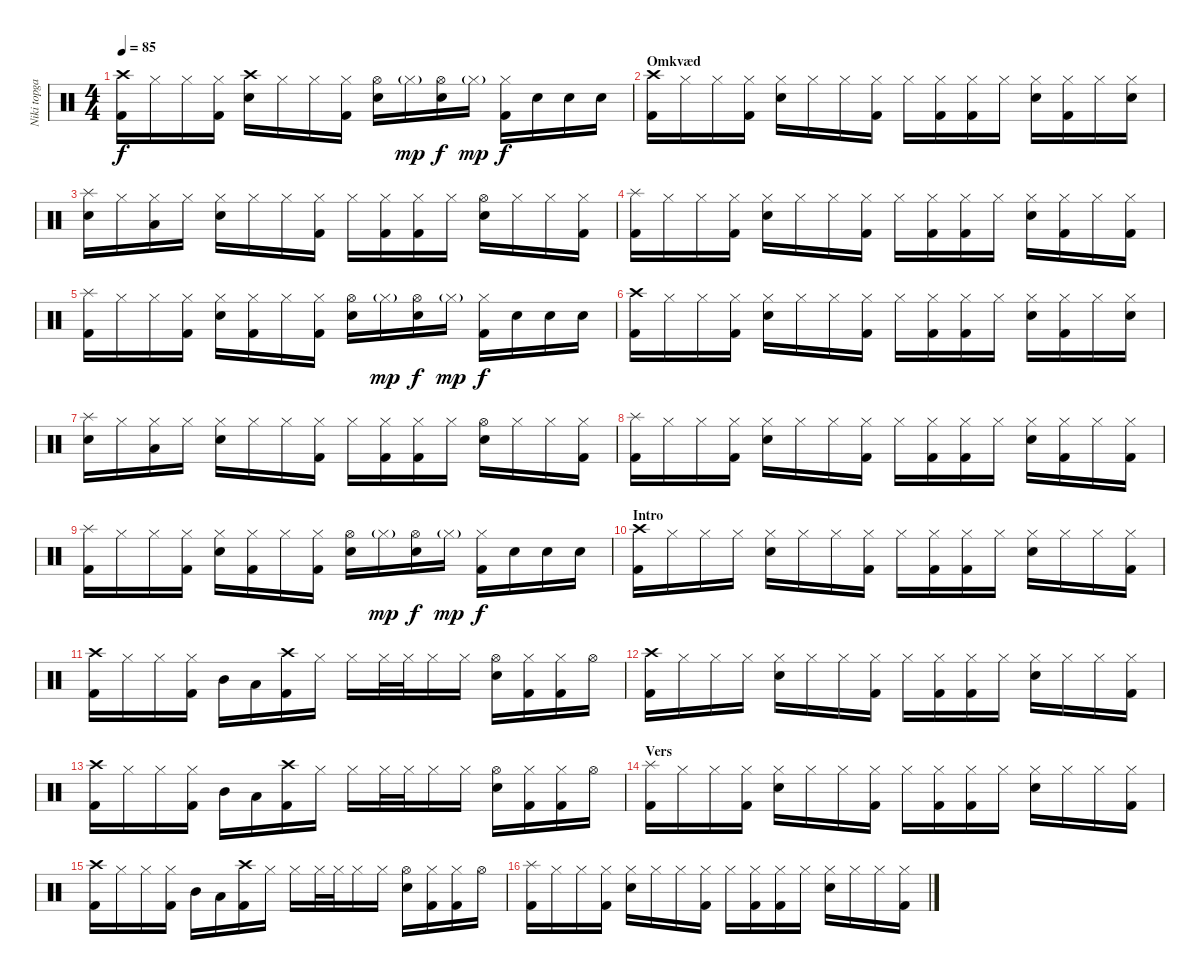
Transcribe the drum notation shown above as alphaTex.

\track ("Niki topgaard" "Niki topga") {instrument percussion}
\staff {score}
\articulation defaults
\ts (4 4)
\tempo 85
\clef neutral
\ks c
("Crash high (hit)" "Kick (hit) 2").16{dy f} "Hi-Hat (closed)".16 "Hi-Hat (closed)".16 ("Hi-Hat (closed)" "Kick (hit) 2").16 ("Crash high (hit)" "Snare (hit) 2").16 "Hi-Hat (closed)".16 "Hi-Hat (closed)".16 ("Hi-Hat (closed)" "Kick (hit) 2").16 ("Hi-Hat (open)" "Snare (hit) 2").16 "Hi-Hat (closed)"{g}.16{dy mp} ("Hi-Hat (open)" "Snare (hit) 2").16{dy f} "Hi-Hat (closed)"{g}.16{dy mp} ("Hi-Hat (closed)" "Kick (hit) 2").16{dy f} "Snare (hit) 2".16 "Snare (hit) 2".16 "Snare (hit) 2".16 |
\section ("" "Omkvæd")
("Crash high (hit)" "Kick (hit) 2").16 "Hi-Hat (closed)".16 "Hi-Hat (closed)".16 ("Hi-Hat (closed)" "Kick (hit) 2").16 ("Hi-Hat (closed)" "Snare (hit) 2").16 "Hi-Hat (closed)".16 "Hi-Hat (closed)".16 ("Hi-Hat (closed)" "Kick (hit) 2").16 "Hi-Hat (closed)".16 ("Hi-Hat (closed)" "Kick (hit) 2").16 ("Hi-Hat (closed)" "Kick (hit) 2").16 "Hi-Hat (closed)".16 ("Hi-Hat (closed)" "Snare (hit) 2").16 ("Hi-Hat (closed)" "Kick (hit) 2").16 "Hi-Hat (closed)".16 ("Hi-Hat (closed)" "Snare (hit) 2").16 |
("Splash (hit)" "Snare (hit) 2").16 "Hi-Hat (closed)".16 ("Hi-Hat (closed)" "Low Tom (hit)").16 "Hi-Hat (closed)".16 ("Hi-Hat (closed)" "Snare (hit) 2").16 "Hi-Hat (closed)".16 "Hi-Hat (closed)".16 ("Hi-Hat (closed)" "Kick (hit) 2").16 "Hi-Hat (closed)".16 ("Hi-Hat (closed)" "Kick (hit) 2").16 ("Hi-Hat (closed)" "Kick (hit) 2").16 "Hi-Hat (closed)".16 ("Hi-Hat (open)" "Snare (hit) 2").16 "Hi-Hat (closed)".16 "Hi-Hat (closed)".16 ("Hi-Hat (closed)" "Kick (hit) 2").16 |
("Splash (hit)" "Kick (hit) 2").16 "Hi-Hat (closed)".16 "Hi-Hat (closed)".16 ("Hi-Hat (closed)" "Kick (hit) 2").16 ("Hi-Hat (closed)" "Snare (hit) 2").16 "Hi-Hat (closed)".16 "Hi-Hat (closed)".16 ("Hi-Hat (closed)" "Kick (hit) 2").16 "Hi-Hat (closed)".16 ("Hi-Hat (closed)" "Kick (hit) 2").16 ("Hi-Hat (closed)" "Kick (hit) 2").16 "Hi-Hat (closed)".16 ("Hi-Hat (closed)" "Snare (hit) 2").16 ("Hi-Hat (closed)" "Kick (hit) 2").16 "Hi-Hat (closed)".16 ("Hi-Hat (closed)" "Kick (hit) 2").16 |
("Splash (hit)" "Kick (hit) 2").16 "Hi-Hat (closed)".16 "Hi-Hat (closed)".16 ("Hi-Hat (closed)" "Kick (hit) 2").16 ("Hi-Hat (closed)" "Snare (hit) 2").16 ("Hi-Hat (closed)" "Kick (hit) 2").16 "Hi-Hat (closed)".16 ("Hi-Hat (closed)" "Kick (hit) 2").16 ("Hi-Hat (open)" "Snare (hit) 2").16 "Hi-Hat (closed)"{g}.16{dy mp} ("Hi-Hat (open)" "Snare (hit) 2").16{dy f} "Hi-Hat (closed)"{g}.16{dy mp} ("Hi-Hat (closed)" "Kick (hit) 2").16{dy f} "Snare (hit) 2".16 "Snare (hit) 2".16 "Snare (hit) 2".16 |
("Crash high (hit)" "Kick (hit) 2").16 "Hi-Hat (closed)".16 "Hi-Hat (closed)".16 ("Hi-Hat (closed)" "Kick (hit) 2").16 ("Hi-Hat (closed)" "Snare (hit) 2").16 "Hi-Hat (closed)".16 "Hi-Hat (closed)".16 ("Hi-Hat (closed)" "Kick (hit) 2").16 "Hi-Hat (closed)".16 ("Hi-Hat (closed)" "Kick (hit) 2").16 ("Hi-Hat (closed)" "Kick (hit) 2").16 "Hi-Hat (closed)".16 ("Hi-Hat (closed)" "Snare (hit) 2").16 ("Hi-Hat (closed)" "Kick (hit) 2").16 "Hi-Hat (closed)".16 ("Hi-Hat (closed)" "Snare (hit) 2").16 |
("Splash (hit)" "Snare (hit) 2").16 "Hi-Hat (closed)".16 ("Hi-Hat (closed)" "Low Tom (hit)").16 "Hi-Hat (closed)".16 ("Hi-Hat (closed)" "Snare (hit) 2").16 "Hi-Hat (closed)".16 "Hi-Hat (closed)".16 ("Hi-Hat (closed)" "Kick (hit) 2").16 "Hi-Hat (closed)".16 ("Hi-Hat (closed)" "Kick (hit) 2").16 ("Hi-Hat (closed)" "Kick (hit) 2").16 "Hi-Hat (closed)".16 ("Hi-Hat (open)" "Snare (hit) 2").16 "Hi-Hat (closed)".16 "Hi-Hat (closed)".16 ("Hi-Hat (closed)" "Kick (hit) 2").16 |
("Splash (hit)" "Kick (hit) 2").16 "Hi-Hat (closed)".16 "Hi-Hat (closed)".16 ("Hi-Hat (closed)" "Kick (hit) 2").16 ("Hi-Hat (closed)" "Snare (hit) 2").16 "Hi-Hat (closed)".16 "Hi-Hat (closed)".16 ("Hi-Hat (closed)" "Kick (hit) 2").16 "Hi-Hat (closed)".16 ("Hi-Hat (closed)" "Kick (hit) 2").16 ("Hi-Hat (closed)" "Kick (hit) 2").16 "Hi-Hat (closed)".16 ("Hi-Hat (closed)" "Snare (hit) 2").16 ("Hi-Hat (closed)" "Kick (hit) 2").16 "Hi-Hat (closed)".16 ("Hi-Hat (closed)" "Kick (hit) 2").16 |
("Splash (hit)" "Kick (hit) 2").16 "Hi-Hat (closed)".16 "Hi-Hat (closed)".16 ("Hi-Hat (closed)" "Kick (hit) 2").16 ("Hi-Hat (closed)" "Snare (hit) 2").16 ("Hi-Hat (closed)" "Kick (hit) 2").16 "Hi-Hat (closed)".16 ("Hi-Hat (closed)" "Kick (hit) 2").16 ("Hi-Hat (open)" "Snare (hit) 2").16 "Hi-Hat (closed)"{g}.16{dy mp} ("Hi-Hat (open)" "Snare (hit) 2").16{dy f} "Hi-Hat (closed)"{g}.16{dy mp} ("Hi-Hat (closed)" "Kick (hit) 2").16{dy f} "Snare (hit) 2".16 "Snare (hit) 2".16 "Snare (hit) 2".16 |
\section ("" "Intro")
("Crash high (hit)" "Kick (hit) 2").16 "Hi-Hat (closed)".16 "Hi-Hat (closed)".16 "Hi-Hat (closed)".16 ("Hi-Hat (closed)" "Snare (hit) 2").16 "Hi-Hat (closed)".16 "Hi-Hat (closed)".16 ("Hi-Hat (closed)" "Kick (hit) 2").16 "Hi-Hat (closed)".16 ("Hi-Hat (closed)" "Kick (hit) 2").16 ("Hi-Hat (closed)" "Kick (hit) 2").16 "Hi-Hat (closed)".16 ("Hi-Hat (closed)" "Snare (hit) 2").16 "Hi-Hat (closed)".16 "Hi-Hat (closed)".16 ("Hi-Hat (closed)" "Kick (hit) 2").16 |
("Crash high (hit)" "Kick (hit) 2").16 "Hi-Hat (closed)".16 "Hi-Hat (closed)".16 ("Hi-Hat (closed)" "Kick (hit) 2").16 "Mid Tom (hit)".16 "Low Tom (hit)".16 ("Crash high (hit)" "Kick (hit) 2").16 "Hi-Hat (closed)".16 "Hi-Hat (closed)".16 "Hi-Hat (closed)".32 "Hi-Hat (closed)".32 "Hi-Hat (closed)".16 "Hi-Hat (closed)".16 ("Hi-Hat (open)" "Snare (hit) 2").16 ("Hi-Hat (closed)" "Kick (hit) 2").16 ("Hi-Hat (closed)" "Kick (hit) 2").16 "Hi-Hat (open)".16 |
("Crash high (hit)" "Kick (hit) 2").16 "Hi-Hat (closed)".16 "Hi-Hat (closed)".16 "Hi-Hat (closed)".16 ("Hi-Hat (closed)" "Snare (hit) 2").16 "Hi-Hat (closed)".16 "Hi-Hat (closed)".16 ("Hi-Hat (closed)" "Kick (hit) 2").16 "Hi-Hat (closed)".16 ("Hi-Hat (closed)" "Kick (hit) 2").16 ("Hi-Hat (closed)" "Kick (hit) 2").16 "Hi-Hat (closed)".16 ("Hi-Hat (closed)" "Snare (hit) 2").16 "Hi-Hat (closed)".16 "Hi-Hat (closed)".16 ("Hi-Hat (closed)" "Kick (hit) 2").16 |
("Crash high (hit)" "Kick (hit) 2").16 "Hi-Hat (closed)".16 "Hi-Hat (closed)".16 ("Hi-Hat (closed)" "Kick (hit) 2").16 "Mid Tom (hit)".16 "Low Tom (hit)".16 ("Crash high (hit)" "Kick (hit) 2").16 "Hi-Hat (closed)".16 "Hi-Hat (closed)".16 "Hi-Hat (closed)".32 "Hi-Hat (closed)".32 "Hi-Hat (closed)".16 "Hi-Hat (closed)".16 ("Hi-Hat (open)" "Snare (hit) 2").16 ("Hi-Hat (closed)" "Kick (hit) 2").16 ("Hi-Hat (closed)" "Kick (hit) 2").16 "Hi-Hat (open)".16 |
\section ("" "Vers")
("Splash (hit)" "Kick (hit) 2").16 "Hi-Hat (closed)".16 "Hi-Hat (closed)".16 ("Hi-Hat (closed)" "Kick (hit) 2").16 ("Hi-Hat (closed)" "Snare (hit) 2").16 "Hi-Hat (closed)".16 "Hi-Hat (closed)".16 ("Hi-Hat (closed)" "Kick (hit) 2").16 "Hi-Hat (closed)".16 ("Hi-Hat (closed)" "Kick (hit) 2").16 ("Hi-Hat (closed)" "Kick (hit) 2").16 "Hi-Hat (closed)".16 ("Hi-Hat (closed)" "Snare (hit) 2").16 "Hi-Hat (closed)".16 "Hi-Hat (closed)".16 ("Hi-Hat (closed)" "Kick (hit) 2").16 |
("Crash high (hit)" "Kick (hit) 2").16 "Hi-Hat (closed)".16 "Hi-Hat (closed)".16 ("Hi-Hat (closed)" "Kick (hit) 2").16 "Mid Tom (hit)".16 "Low Tom (hit)".16 ("Crash high (hit)" "Kick (hit) 2").16 "Hi-Hat (closed)".16 "Hi-Hat (closed)".16 "Hi-Hat (closed)".32 "Hi-Hat (closed)".32 "Hi-Hat (closed)".16 "Hi-Hat (closed)".16 ("Hi-Hat (open)" "Snare (hit) 2").16 ("Hi-Hat (closed)" "Kick (hit) 2").16 ("Hi-Hat (closed)" "Kick (hit) 2").16 "Hi-Hat (open)".16 |
("Splash (hit)" "Kick (hit) 2").16 "Hi-Hat (closed)".16 "Hi-Hat (closed)".16 ("Hi-Hat (closed)" "Kick (hit) 2").16 ("Hi-Hat (closed)" "Snare (hit) 2").16 "Hi-Hat (closed)".16 "Hi-Hat (closed)".16 ("Hi-Hat (closed)" "Kick (hit) 2").16 "Hi-Hat (closed)".16 ("Hi-Hat (closed)" "Kick (hit) 2").16 ("Hi-Hat (closed)" "Kick (hit) 2").16 "Hi-Hat (closed)".16 ("Hi-Hat (closed)" "Snare (hit) 2").16 "Hi-Hat (closed)".16 "Hi-Hat (closed)".16 ("Hi-Hat (closed)" "Kick (hit) 2").16
